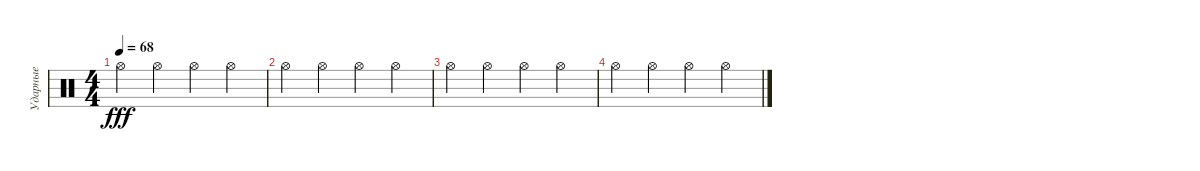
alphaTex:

\track ("Ударные" "Ударные") {instrument percussion}
\staff {score}
\articulation defaults
\ts (4 4)
\tempo 68
\clef neutral
\ks c "Hi-Hat (open)".4{dy fff} "Hi-Hat (open)".4 "Hi-Hat (open)".4 "Hi-Hat (open)".4
|
"Hi-Hat (open)".4 "Hi-Hat (open)".4 "Hi-Hat (open)".4 "Hi-Hat (open)".4 |
"Hi-Hat (open)".4 "Hi-Hat (open)".4 "Hi-Hat (open)".4 "Hi-Hat (open)".4 |
"Hi-Hat (open)".4 "Hi-Hat (open)".4 "Hi-Hat (open)".4 "Hi-Hat (open)".4
